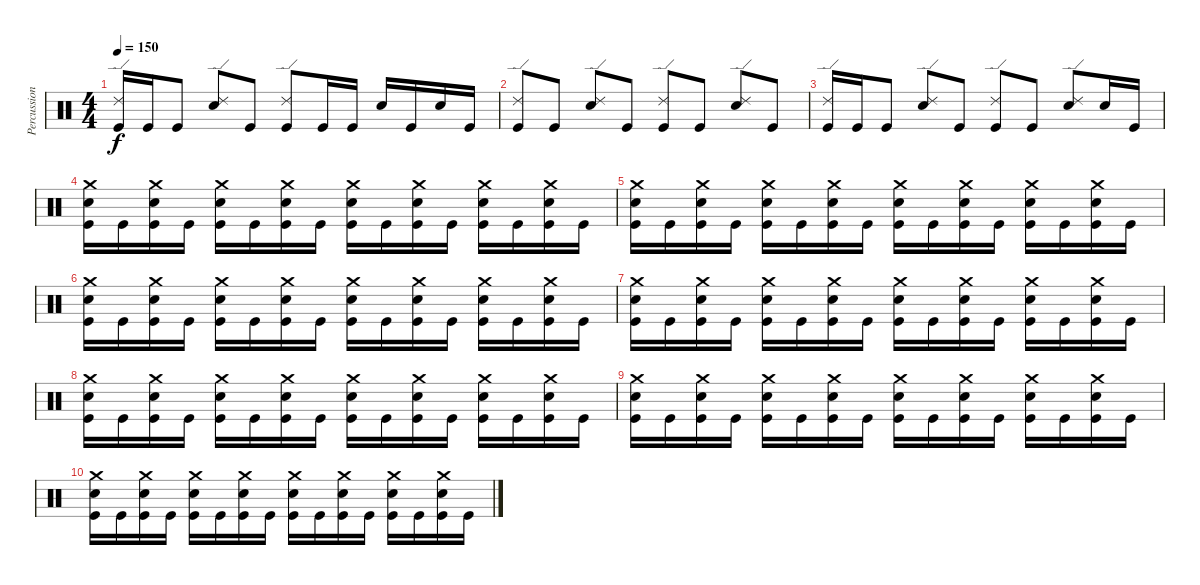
\track ("Percussion" "Percussion") {instrument percussion}
\staff {score}
\articulation defaults
\ts (4 4)
\tempo 150
\clef neutral
\ks c
("Ride (edge) 2" "Kick (hit)").16{dy f} "Kick (hit)".16 "Kick (hit)".8 ("Ride (edge) 2" "Electric Snare (hit)").8 "Kick (hit)".8 ("Ride (edge) 2" "Kick (hit)").8 "Kick (hit)".16 "Kick (hit)".16 "Electric Snare (hit)".16 "Kick (hit)".16 "Electric Snare (hit)".16 "Kick (hit)".16 |
("Ride (edge) 2" "Kick (hit)").8 "Kick (hit)".8 ("Ride (edge) 2" "Electric Snare (hit)").8 "Kick (hit)".8 ("Ride (edge) 2" "Kick (hit)").8 "Kick (hit)".8 ("Ride (edge) 2" "Electric Snare (hit)").8 "Kick (hit)".8 |
("Ride (edge) 2" "Kick (hit)").16 "Kick (hit)".16 "Kick (hit)".8 ("Ride (edge) 2" "Electric Snare (hit)").8 "Kick (hit)".8 ("Ride (edge) 2" "Kick (hit)").8 "Kick (hit)".8 ("Ride (edge) 2" "Electric Snare (hit)").8 "Electric Snare (hit)".16 "Kick (hit)".16 |
("Crash medium (hit)" "Electric Snare (hit)" "Kick (hit)").16 "Kick (hit)".16 ("Crash medium (hit)" "Electric Snare (hit)" "Kick (hit)").16 "Kick (hit)".16 ("Crash medium (hit)" "Electric Snare (hit)" "Kick (hit)").16 "Kick (hit)".16 ("Crash medium (hit)" "Electric Snare (hit)" "Kick (hit)").16 "Kick (hit)".16 ("Crash medium (hit)" "Electric Snare (hit)" "Kick (hit)").16 "Kick (hit)".16 ("Crash medium (hit)" "Electric Snare (hit)" "Kick (hit)").16 "Kick (hit)".16 ("Crash medium (hit)" "Electric Snare (hit)" "Kick (hit)").16 "Kick (hit)".16 ("Crash medium (hit)" "Electric Snare (hit)" "Kick (hit)").16 "Kick (hit)".16 |
("Crash medium (hit)" "Electric Snare (hit)" "Kick (hit)").16 "Kick (hit)".16 ("Crash medium (hit)" "Electric Snare (hit)" "Kick (hit)").16 "Kick (hit)".16 ("Crash medium (hit)" "Electric Snare (hit)" "Kick (hit)").16 "Kick (hit)".16 ("Crash medium (hit)" "Electric Snare (hit)" "Kick (hit)").16 "Kick (hit)".16 ("Crash medium (hit)" "Electric Snare (hit)" "Kick (hit)").16 "Kick (hit)".16 ("Crash medium (hit)" "Electric Snare (hit)" "Kick (hit)").16 "Kick (hit)".16 ("Crash medium (hit)" "Electric Snare (hit)" "Kick (hit)").16 "Kick (hit)".16 ("Crash medium (hit)" "Electric Snare (hit)" "Kick (hit)").16 "Kick (hit)".16 |
("Crash medium (hit)" "Electric Snare (hit)" "Kick (hit)").16 "Kick (hit)".16 ("Crash medium (hit)" "Electric Snare (hit)" "Kick (hit)").16 "Kick (hit)".16 ("Crash medium (hit)" "Electric Snare (hit)" "Kick (hit)").16 "Kick (hit)".16 ("Crash medium (hit)" "Electric Snare (hit)" "Kick (hit)").16 "Kick (hit)".16 ("Crash medium (hit)" "Electric Snare (hit)" "Kick (hit)").16 "Kick (hit)".16 ("Crash medium (hit)" "Electric Snare (hit)" "Kick (hit)").16 "Kick (hit)".16 ("Crash medium (hit)" "Electric Snare (hit)" "Kick (hit)").16 "Kick (hit)".16 ("Crash medium (hit)" "Electric Snare (hit)" "Kick (hit)").16 "Kick (hit)".16 |
("Crash medium (hit)" "Electric Snare (hit)" "Kick (hit)").16 "Kick (hit)".16 ("Crash medium (hit)" "Electric Snare (hit)" "Kick (hit)").16 "Kick (hit)".16 ("Crash medium (hit)" "Electric Snare (hit)" "Kick (hit)").16 "Kick (hit)".16 ("Crash medium (hit)" "Electric Snare (hit)" "Kick (hit)").16 "Kick (hit)".16 ("Crash medium (hit)" "Electric Snare (hit)" "Kick (hit)").16 "Kick (hit)".16 ("Crash medium (hit)" "Electric Snare (hit)" "Kick (hit)").16 "Kick (hit)".16 ("Crash medium (hit)" "Electric Snare (hit)" "Kick (hit)").16 "Kick (hit)".16 ("Crash medium (hit)" "Electric Snare (hit)" "Kick (hit)").16 "Kick (hit)".16 |
("Crash medium (hit)" "Electric Snare (hit)" "Kick (hit)").16 "Kick (hit)".16 ("Crash medium (hit)" "Electric Snare (hit)" "Kick (hit)").16 "Kick (hit)".16 ("Crash medium (hit)" "Electric Snare (hit)" "Kick (hit)").16 "Kick (hit)".16 ("Crash medium (hit)" "Electric Snare (hit)" "Kick (hit)").16 "Kick (hit)".16 ("Crash medium (hit)" "Electric Snare (hit)" "Kick (hit)").16 "Kick (hit)".16 ("Crash medium (hit)" "Electric Snare (hit)" "Kick (hit)").16 "Kick (hit)".16 ("Crash medium (hit)" "Electric Snare (hit)" "Kick (hit)").16 "Kick (hit)".16 ("Crash medium (hit)" "Electric Snare (hit)" "Kick (hit)").16 "Kick (hit)".16 |
("Crash medium (hit)" "Electric Snare (hit)" "Kick (hit)").16 "Kick (hit)".16 ("Crash medium (hit)" "Electric Snare (hit)" "Kick (hit)").16 "Kick (hit)".16 ("Crash medium (hit)" "Electric Snare (hit)" "Kick (hit)").16 "Kick (hit)".16 ("Crash medium (hit)" "Electric Snare (hit)" "Kick (hit)").16 "Kick (hit)".16 ("Crash medium (hit)" "Electric Snare (hit)" "Kick (hit)").16 "Kick (hit)".16 ("Crash medium (hit)" "Electric Snare (hit)" "Kick (hit)").16 "Kick (hit)".16 ("Crash medium (hit)" "Electric Snare (hit)" "Kick (hit)").16 "Kick (hit)".16 ("Crash medium (hit)" "Electric Snare (hit)" "Kick (hit)").16 "Kick (hit)".16 |
("Crash medium (hit)" "Electric Snare (hit)" "Kick (hit)").16 "Kick (hit)".16 ("Crash medium (hit)" "Electric Snare (hit)" "Kick (hit)").16 "Kick (hit)".16 ("Crash medium (hit)" "Electric Snare (hit)" "Kick (hit)").16 "Kick (hit)".16 ("Crash medium (hit)" "Electric Snare (hit)" "Kick (hit)").16 "Kick (hit)".16 ("Crash medium (hit)" "Electric Snare (hit)" "Kick (hit)").16 "Kick (hit)".16 ("Crash medium (hit)" "Electric Snare (hit)" "Kick (hit)").16 "Kick (hit)".16 ("Crash medium (hit)" "Electric Snare (hit)" "Kick (hit)").16 "Kick (hit)".16 ("Crash medium (hit)" "Electric Snare (hit)" "Kick (hit)").16 "Kick (hit)".16
